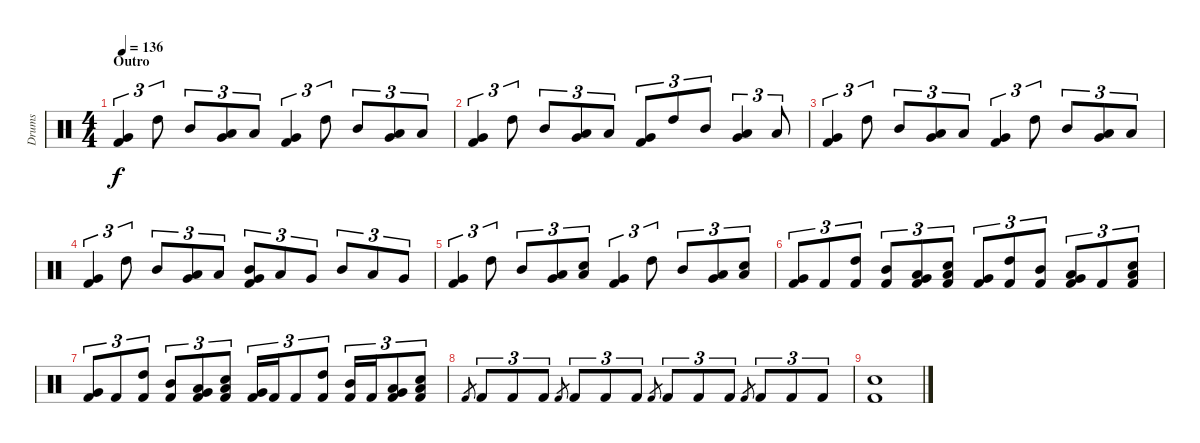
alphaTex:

\track ("Drums" "Drums") {instrument percussion}
\staff {score}
\articulation defaults
\ts (4 4)
\section ("" "Outro")
\tempo 136
\clef neutral
\ks c
("Very Low Tom (hit)" "Kick (hit) 2").4{tu (3 2) dy f} "High Tom (hit)".8{tu (3 2)} "Mid Tom (hit)".8{tu (3 2)} ("Low Tom (hit)" "Very Low Tom (hit)").8{tu (3 2)} "Low Tom (hit)".8{tu (3 2)} ("Very Low Tom (hit)" "Kick (hit) 2").4{tu (3 2)} "High Tom (hit)".8{tu (3 2)} "Mid Tom (hit)".8{tu (3 2)} ("Low Tom (hit)" "Very Low Tom (hit)").8{tu (3 2)} "Low Tom (hit)".8{tu (3 2)} |
("Very Low Tom (hit)" "Kick (hit) 2").4{tu (3 2)} "High Tom (hit)".8{tu (3 2)} "Mid Tom (hit)".8{tu (3 2)} ("Low Tom (hit)" "Very Low Tom (hit)").8{tu (3 2)} "Low Tom (hit)".8{tu (3 2)} ("Very Low Tom (hit)" "Kick (hit) 2").8{tu (3 2)} "High Tom (hit)".8{tu (3 2)} "Mid Tom (hit)".8{tu (3 2)} ("Low Tom (hit)" "Very Low Tom (hit)").4{tu (3 2)} "Low Tom (hit)".8{tu (3 2)} |
("Very Low Tom (hit)" "Kick (hit) 2").4{tu (3 2)} "High Tom (hit)".8{tu (3 2)} "Mid Tom (hit)".8{tu (3 2)} ("Low Tom (hit)" "Very Low Tom (hit)").8{tu (3 2)} "Low Tom (hit)".8{tu (3 2)} ("Very Low Tom (hit)" "Kick (hit) 2").4{tu (3 2)} "High Tom (hit)".8{tu (3 2)} "Mid Tom (hit)".8{tu (3 2)} ("Low Tom (hit)" "Very Low Tom (hit)").8{tu (3 2)} "Low Tom (hit)".8{tu (3 2)} |
("Very Low Tom (hit)" "Kick (hit) 2").4{tu (3 2)} "High Tom (hit)".8{tu (3 2)} "Mid Tom (hit)".8{tu (3 2)} ("Low Tom (hit)" "Very Low Tom (hit)").8{tu (3 2)} "Low Tom (hit)".8{tu (3 2)} ("Mid Tom (hit)" "Very Low Tom (hit)" "Kick (hit) 2").8{tu (3 2)} "Low Tom (hit)".8{tu (3 2)} "Very Low Tom (hit)".8{tu (3 2)} "Mid Tom (hit)".8{tu (3 2)} "Low Tom (hit)".8{tu (3 2)} "Very Low Tom (hit)".8{tu (3 2)} |
("Very Low Tom (hit)" "Kick (hit) 2").4{tu (3 2)} "High Tom (hit)".8{tu (3 2)} "Mid Tom (hit)".8{tu (3 2)} ("Low Tom (hit)" "Very Low Tom (hit)").8{tu (3 2)} ("Low Tom (hit)" "Electric Snare (hit)").8{tu (3 2)} ("Very Low Tom (hit)" "Kick (hit) 2").4{tu (3 2)} "High Tom (hit)".8{tu (3 2)} "Mid Tom (hit)".8{tu (3 2)} ("Low Tom (hit)" "Very Low Tom (hit)").8{tu (3 2)} ("Low Tom (hit)" "Electric Snare (hit)").8{tu (3 2)} |
("Very Low Tom (hit)" "Kick (hit) 2").8{tu (3 2)} "Kick (hit) 2".8{tu (3 2)} ("High Tom (hit)" "Kick (hit) 2").8{tu (3 2)} ("Mid Tom (hit)" "Kick (hit) 2").8{tu (3 2)} ("Low Tom (hit)" "Very Low Tom (hit)" "Kick (hit) 2").8{tu (3 2)} ("Low Tom (hit)" "Electric Snare (hit)" "Kick (hit) 2").8{tu (3 2)} ("Very Low Tom (hit)" "Kick (hit) 2").8{tu (3 2)} ("High Tom (hit)" "Kick (hit) 2").8{tu (3 2)} ("Mid Tom (hit)" "Kick (hit) 2").8{tu (3 2)} ("Low Tom (hit)" "Very Low Tom (hit)" "Kick (hit) 2").8{tu (3 2)} "Kick (hit) 2".8{tu (3 2)} ("Low Tom (hit)" "Electric Snare (hit)" "Kick (hit) 2").8{tu (3 2)} |
("Very Low Tom (hit)" "Kick (hit) 2").8{tu (3 2)} "Kick (hit) 2".8{tu (3 2)} ("High Tom (hit)" "Kick (hit) 2").8{tu (3 2)} ("Mid Tom (hit)" "Kick (hit) 2").8{tu (3 2)} ("Low Tom (hit)" "Very Low Tom (hit)" "Kick (hit) 2").8{tu (3 2)} ("Low Tom (hit)" "Electric Snare (hit)" "Kick (hit) 2").8{tu (3 2)} ("Very Low Tom (hit)" "Kick (hit) 2").16{tu (3 2)} "Kick (hit) 2".16{tu (3 2)} "Kick (hit) 2".8{tu (3 2)} ("High Tom (hit)" "Kick (hit) 2").8{tu (3 2)} ("Mid Tom (hit)" "Kick (hit) 2").16{tu (3 2)} "Kick (hit) 2".16{tu (3 2)} ("Low Tom (hit)" "Very Low Tom (hit)" "Kick (hit) 2").8{tu (3 2)} ("Low Tom (hit)" "Electric Snare (hit)" "Kick (hit) 2").8{tu (3 2)} |
"Kick (hit) 2".8{gr} "Kick (hit) 2".8{tu (3 2)} "Kick (hit) 2".8{tu (3 2)} "Kick (hit) 2".8{tu (3 2)} "Kick (hit) 2".8{gr} "Kick (hit) 2".8{tu (3 2)} "Kick (hit) 2".8{tu (3 2)} "Kick (hit) 2".8{tu (3 2)} "Kick (hit) 2".8{gr} "Kick (hit) 2".8{tu (3 2)} "Kick (hit) 2".8{tu (3 2)} "Kick (hit) 2".8{tu (3 2)} "Kick (hit) 2".8{gr} "Kick (hit) 2".8{tu (3 2)} "Kick (hit) 2".8{tu (3 2)} "Kick (hit) 2".8{tu (3 2)} |
("Electric Snare (hit)" "Kick (hit) 2").1
